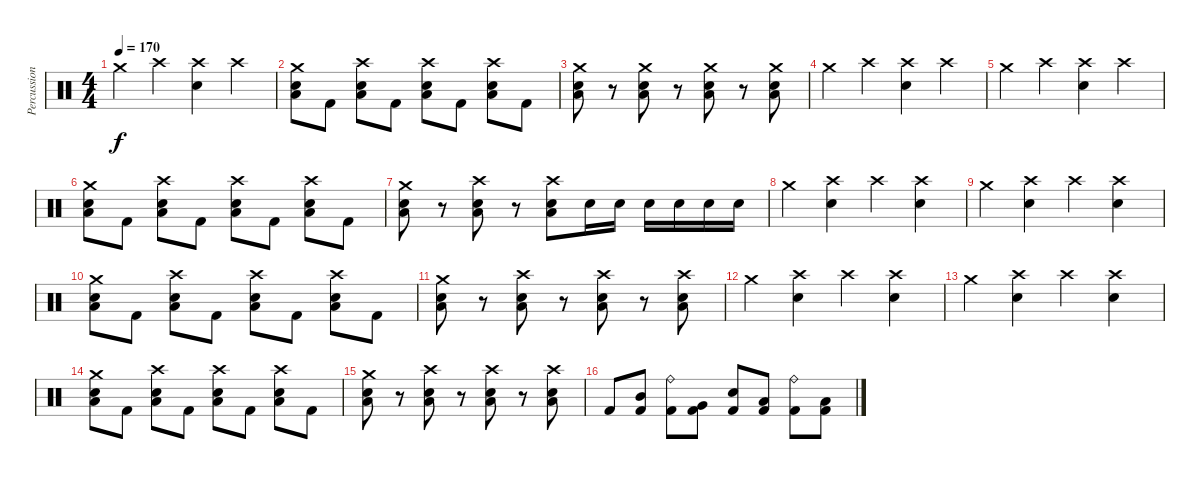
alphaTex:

\track ("Percussion" "Percussion") {solo instrument percussion}
\staff {score}
\articulation defaults
\ts (4 4)
\tempo 170
\clef neutral
\ks c "Crash medium (hit)".4{dy f} "Crash high (hit)".4
("Crash high (hit)" "Electric Snare (hit)").4 "Crash high (hit)".4 |
("Electric Snare (hit)" "Low Floor Tom (hit)" "Crash medium (hit)").8 "Kick (hit) 2".8 ("Electric Snare (hit)" "Low Floor Tom (hit)" "Crash high (hit)").8 "Kick (hit) 2".8 ("Electric Snare (hit)" "Low Floor Tom (hit)" "Crash high (hit)").8 "Kick (hit) 2".8 ("Electric Snare (hit)" "Low Floor Tom (hit)" "Crash high (hit)").8 "Kick (hit) 2".8 |
("Electric Snare (hit)" "Low Floor Tom (hit)" "Crash medium (hit)").8 r.8 ("Electric Snare (hit)" "Low Floor Tom (hit)" "Crash medium (hit)").8 r.8 ("Electric Snare (hit)" "Low Floor Tom (hit)" "Crash medium (hit)").8 r.8 ("Electric Snare (hit)" "Low Floor Tom (hit)" "Crash medium (hit)").8 |
"Crash medium (hit)".4 "Crash high (hit)".4 ("Crash high (hit)" "Electric Snare (hit)").4 "Crash high (hit)".4 |
"Crash medium (hit)".4 "Crash high (hit)".4 ("Crash high (hit)" "Electric Snare (hit)").4 "Crash high (hit)".4 |
("Electric Snare (hit)" "Low Floor Tom (hit)" "Crash medium (hit)").8 "Kick (hit) 2".8 ("Electric Snare (hit)" "Low Floor Tom (hit)" "Crash high (hit)").8 "Kick (hit) 2".8 ("Electric Snare (hit)" "Low Floor Tom (hit)" "Crash high (hit)").8 "Kick (hit) 2".8 ("Electric Snare (hit)" "Low Floor Tom (hit)" "Crash high (hit)").8 "Kick (hit) 2".8 |
("Electric Snare (hit)" "Low Floor Tom (hit)" "Crash medium (hit)").8 r.8 ("Electric Snare (hit)" "Low Floor Tom (hit)" "Crash high (hit)").8 r.8 ("Electric Snare (hit)" "Low Floor Tom (hit)" "Crash high (hit)").8 "Electric Snare (hit)".16 "Electric Snare (hit)".16 "Electric Snare (hit)".16 "Electric Snare (hit)".16 "Electric Snare (hit)".16 "Electric Snare (hit)".16 |
"Crash medium (hit)".4 ("Crash high (hit)" "Electric Snare (hit)").4 "Crash high (hit)".4 ("Crash high (hit)" "Electric Snare (hit)").4 |
"Crash medium (hit)".4 ("Crash high (hit)" "Electric Snare (hit)").4 "Crash high (hit)".4 ("Crash high (hit)" "Electric Snare (hit)").4 |
("Electric Snare (hit)" "Low Floor Tom (hit)" "Crash medium (hit)").8 "Kick (hit) 2".8 ("Electric Snare (hit)" "Low Floor Tom (hit)" "Crash high (hit)").8 "Kick (hit) 2".8 ("Electric Snare (hit)" "Low Floor Tom (hit)" "Crash high (hit)").8 "Kick (hit) 2".8 ("Electric Snare (hit)" "Low Floor Tom (hit)" "Crash high (hit)").8 "Kick (hit) 2".8 |
("Electric Snare (hit)" "Low Floor Tom (hit)" "Crash medium (hit)").8 r.8 ("Electric Snare (hit)" "Low Floor Tom (hit)" "Crash high (hit)").8 r.8 ("Electric Snare (hit)" "Low Floor Tom (hit)" "Crash high (hit)").8 r.8 ("Electric Snare (hit)" "Low Floor Tom (hit)" "Crash high (hit)").8 |
"Crash medium (hit)".4 ("Crash high (hit)" "Electric Snare (hit)").4 "Crash high (hit)".4 ("Crash high (hit)" "Electric Snare (hit)").4 |
"Crash medium (hit)".4 ("Crash high (hit)" "Electric Snare (hit)").4 "Crash high (hit)".4 ("Crash high (hit)" "Electric Snare (hit)").4 |
("Electric Snare (hit)" "Low Floor Tom (hit)" "Crash medium (hit)").8 "Kick (hit) 2".8 ("Electric Snare (hit)" "Low Floor Tom (hit)" "Crash high (hit)").8 "Kick (hit) 2".8 ("Electric Snare (hit)" "Low Floor Tom (hit)" "Crash high (hit)").8 "Kick (hit) 2".8 ("Electric Snare (hit)" "Low Floor Tom (hit)" "Crash high (hit)").8 "Kick (hit) 2".8 |
("Electric Snare (hit)" "Low Floor Tom (hit)" "Crash medium (hit)").8 r.8 ("Electric Snare (hit)" "Low Floor Tom (hit)" "Crash high (hit)").8 r.8 ("Electric Snare (hit)" "Low Floor Tom (hit)" "Crash high (hit)").8 r.8 ("Electric Snare (hit)" "Low Floor Tom (hit)" "Crash high (hit)").8 |
"Kick (hit) 2".8 ("Kick (hit) 2" "Mid Tom (hit)").8 ("Kick (hit) 2" "Ride (bell)").8 ("Kick (hit) 2" "Very Low Tom (hit)").8 ("Kick (hit) 2" "Electric Snare (hit)").8 ("Kick (hit) 2" "Low Tom (hit)").8 ("Kick (hit) 2" "Ride (bell)").8 ("Kick (hit) 2" "Low Floor Tom (hit)").8
